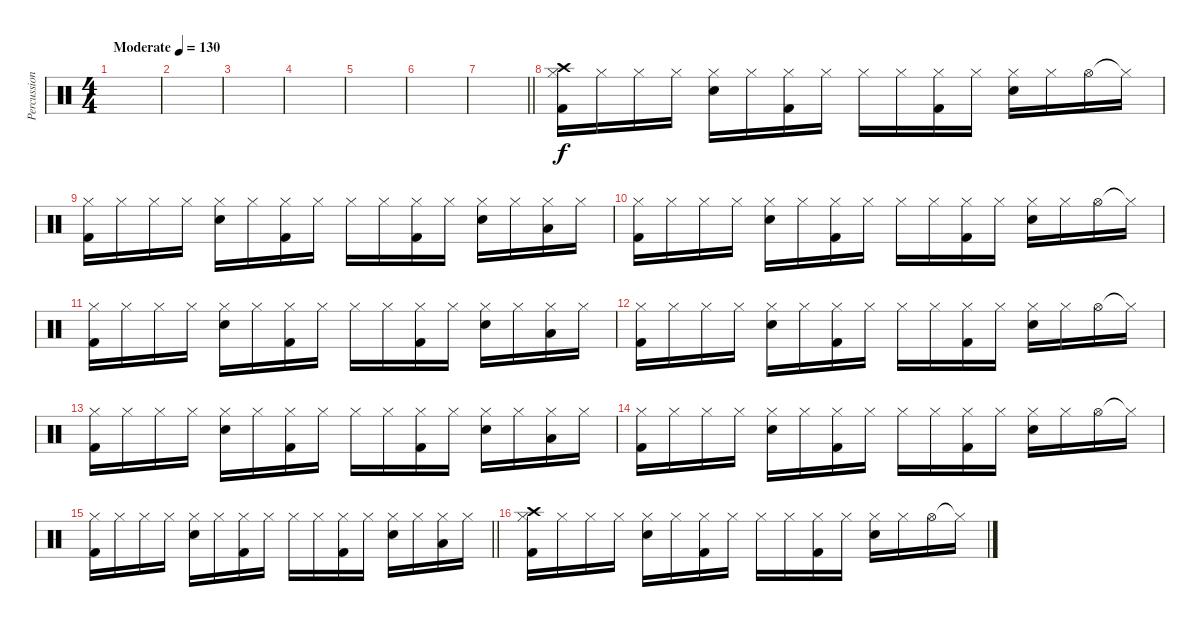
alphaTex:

\track ("Percussion" "Percussion") {instrument percussion}
\staff {score}
\articulation defaults
\ts (4 4)
\tempo (130 "Moderate")
\clef neutral
\ks c
|
|
|
|
|
|
\barLineRight lightlight
|
("Hi-Hat (closed)" "Crash high (hit)" "Kick (hit) 2").16 "Hi-Hat (closed)".16 "Hi-Hat (closed)".16 "Hi-Hat (closed)".16 ("Hi-Hat (closed)" "Snare (hit) 2").16 "Hi-Hat (closed)".16 ("Hi-Hat (closed)" "Kick (hit) 2").16 "Hi-Hat (closed)".16 "Hi-Hat (closed)".16 "Hi-Hat (closed)".16 ("Hi-Hat (closed)" "Kick (hit) 2").16 "Hi-Hat (closed)".16 ("Hi-Hat (closed)" "Snare (hit) 2").16 "Hi-Hat (closed)".16 "Hi-Hat (open)".16 "Hi-Hat (closed)"{t}.16 |
("Hi-Hat (closed)" "Kick (hit) 2").16 "Hi-Hat (closed)".16 "Hi-Hat (closed)".16 "Hi-Hat (closed)".16 ("Hi-Hat (closed)" "Snare (hit) 2").16 "Hi-Hat (closed)".16 ("Hi-Hat (closed)" "Kick (hit) 2").16 "Hi-Hat (closed)".16 "Hi-Hat (closed)".16 "Hi-Hat (closed)".16 ("Hi-Hat (closed)" "Kick (hit) 2").16 "Hi-Hat (closed)".16 ("Hi-Hat (closed)" "Snare (hit) 2").16 "Hi-Hat (closed)".16 ("Hi-Hat (closed)" "Low Tom (hit)").16 "Hi-Hat (closed)".16 |
("Hi-Hat (closed)" "Kick (hit) 2").16 "Hi-Hat (closed)".16 "Hi-Hat (closed)".16 "Hi-Hat (closed)".16 ("Hi-Hat (closed)" "Snare (hit) 2").16 "Hi-Hat (closed)".16 ("Hi-Hat (closed)" "Kick (hit) 2").16 "Hi-Hat (closed)".16 "Hi-Hat (closed)".16 "Hi-Hat (closed)".16 ("Hi-Hat (closed)" "Kick (hit) 2").16 "Hi-Hat (closed)".16 ("Hi-Hat (closed)" "Snare (hit) 2").16 "Hi-Hat (closed)".16 "Hi-Hat (open)".16 "Hi-Hat (closed)"{t}.16 |
("Hi-Hat (closed)" "Kick (hit) 2").16 "Hi-Hat (closed)".16 "Hi-Hat (closed)".16 "Hi-Hat (closed)".16 ("Hi-Hat (closed)" "Snare (hit) 2").16 "Hi-Hat (closed)".16 ("Hi-Hat (closed)" "Kick (hit) 2").16 "Hi-Hat (closed)".16 "Hi-Hat (closed)".16 "Hi-Hat (closed)".16 ("Hi-Hat (closed)" "Kick (hit) 2").16 "Hi-Hat (closed)".16 ("Hi-Hat (closed)" "Snare (hit) 2").16 "Hi-Hat (closed)".16 ("Hi-Hat (closed)" "Low Tom (hit)").16 "Hi-Hat (closed)".16 |
("Hi-Hat (closed)" "Kick (hit) 2").16 "Hi-Hat (closed)".16 "Hi-Hat (closed)".16 "Hi-Hat (closed)".16 ("Hi-Hat (closed)" "Snare (hit) 2").16 "Hi-Hat (closed)".16 ("Hi-Hat (closed)" "Kick (hit) 2").16 "Hi-Hat (closed)".16 "Hi-Hat (closed)".16 "Hi-Hat (closed)".16 ("Hi-Hat (closed)" "Kick (hit) 2").16 "Hi-Hat (closed)".16 ("Hi-Hat (closed)" "Snare (hit) 2").16 "Hi-Hat (closed)".16 "Hi-Hat (open)".16 "Hi-Hat (closed)"{t}.16 |
("Hi-Hat (closed)" "Kick (hit) 2").16 "Hi-Hat (closed)".16 "Hi-Hat (closed)".16 "Hi-Hat (closed)".16 ("Hi-Hat (closed)" "Snare (hit) 2").16 "Hi-Hat (closed)".16 ("Hi-Hat (closed)" "Kick (hit) 2").16 "Hi-Hat (closed)".16 "Hi-Hat (closed)".16 "Hi-Hat (closed)".16 ("Hi-Hat (closed)" "Kick (hit) 2").16 "Hi-Hat (closed)".16 ("Hi-Hat (closed)" "Snare (hit) 2").16 "Hi-Hat (closed)".16 ("Hi-Hat (closed)" "Low Tom (hit)").16 "Hi-Hat (closed)".16 |
("Hi-Hat (closed)" "Kick (hit) 2").16 "Hi-Hat (closed)".16 "Hi-Hat (closed)".16 "Hi-Hat (closed)".16 ("Hi-Hat (closed)" "Snare (hit) 2").16 "Hi-Hat (closed)".16 ("Hi-Hat (closed)" "Kick (hit) 2").16 "Hi-Hat (closed)".16 "Hi-Hat (closed)".16 "Hi-Hat (closed)".16 ("Hi-Hat (closed)" "Kick (hit) 2").16 "Hi-Hat (closed)".16 ("Hi-Hat (closed)" "Snare (hit) 2").16 "Hi-Hat (closed)".16 "Hi-Hat (open)".16 "Hi-Hat (closed)"{t}.16 |
\barLineRight lightlight
("Hi-Hat (closed)" "Kick (hit) 2").16 "Hi-Hat (closed)".16 "Hi-Hat (closed)".16 "Hi-Hat (closed)".16 ("Hi-Hat (closed)" "Snare (hit) 2").16 "Hi-Hat (closed)".16 ("Hi-Hat (closed)" "Kick (hit) 2").16 "Hi-Hat (closed)".16 "Hi-Hat (closed)".16 "Hi-Hat (closed)".16 ("Hi-Hat (closed)" "Kick (hit) 2").16 "Hi-Hat (closed)".16 ("Hi-Hat (closed)" "Snare (hit) 2").16 "Hi-Hat (closed)".16 ("Hi-Hat (closed)" "Low Tom (hit)").16 "Hi-Hat (closed)".16 |
("Hi-Hat (closed)" "Crash high (hit)" "Kick (hit) 2").16 "Hi-Hat (closed)".16 "Hi-Hat (closed)".16 "Hi-Hat (closed)".16 ("Hi-Hat (closed)" "Snare (hit) 2").16 "Hi-Hat (closed)".16 ("Hi-Hat (closed)" "Kick (hit) 2").16 "Hi-Hat (closed)".16 "Hi-Hat (closed)".16 "Hi-Hat (closed)".16 ("Hi-Hat (closed)" "Kick (hit) 2").16 "Hi-Hat (closed)".16 ("Hi-Hat (closed)" "Snare (hit) 2").16 "Hi-Hat (closed)".16 "Hi-Hat (open)".16 "Hi-Hat (closed)"{t}.16
